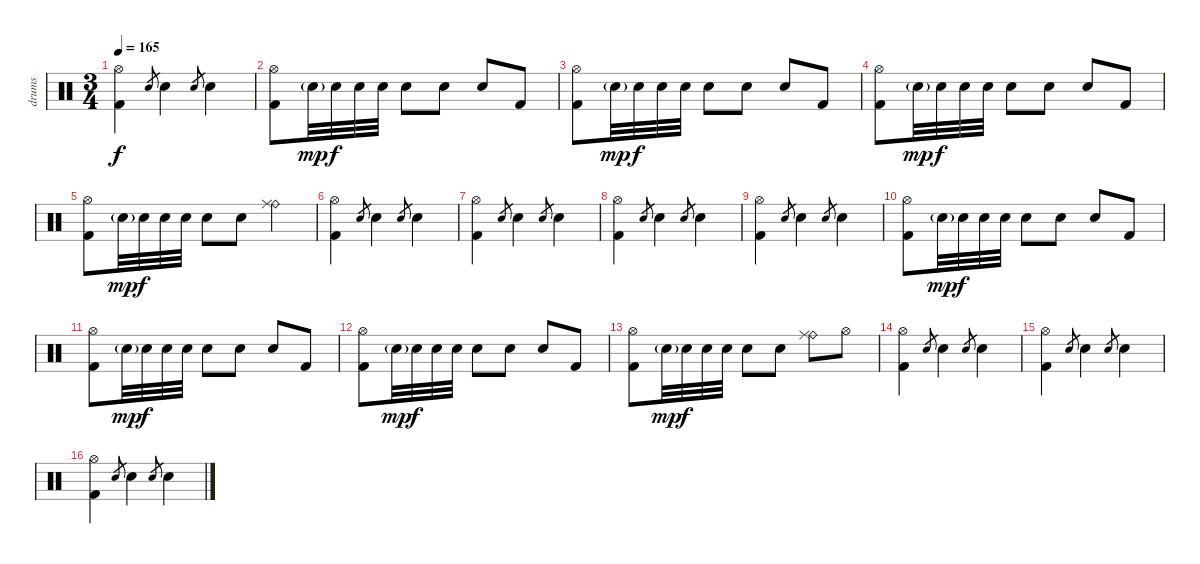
\track ("drums" "drums") {instrument percussion}
\staff {score}
\articulation defaults
\ts (3 4)
\tempo 165
\clef neutral
\ks c
("Hi-Hat (open)" "Kick (hit) 2").4{dy f} "Snare (hit) 2".8{gr} "Snare (hit) 2".4 "Snare (hit) 2".8{gr} "Snare (hit) 2".4 |
("Hi-Hat (open)" "Kick (hit) 2").8 "Snare (hit) 2"{g}.32{dy mp} "Snare (hit) 2".32{dy f} "Snare (hit) 2".32 "Snare (hit) 2".32 "Snare (hit) 2".8 "Snare (hit) 2".8 "Snare (hit) 2".8 "Kick (hit) 2".8 |
("Hi-Hat (open)" "Kick (hit) 2").8 "Snare (hit) 2"{g}.32{dy mp} "Snare (hit) 2".32{dy f} "Snare (hit) 2".32 "Snare (hit) 2".32 "Snare (hit) 2".8 "Snare (hit) 2".8 "Snare (hit) 2".8 "Kick (hit) 2".8 |
("Hi-Hat (open)" "Kick (hit) 2").8 "Snare (hit) 2"{g}.32{dy mp} "Snare (hit) 2".32{dy f} "Snare (hit) 2".32 "Snare (hit) 2".32 "Snare (hit) 2".8 "Snare (hit) 2".8 "Snare (hit) 2".8 "Kick (hit) 2".8 |
("Hi-Hat (open)" "Kick (hit) 2").8 "Snare (hit) 2"{g}.32{dy mp} "Snare (hit) 2".32{dy f} "Snare (hit) 2".32 "Snare (hit) 2".32 "Snare (hit) 2".8 "Snare (hit) 2".8 ("Ride (bell)" "Ride (middle)").4 |
("Hi-Hat (open)" "Kick (hit) 2").4 "Snare (hit) 2".8{gr} "Snare (hit) 2".4 "Snare (hit) 2".8{gr} "Snare (hit) 2".4 |
("Hi-Hat (open)" "Kick (hit) 2").4 "Snare (hit) 2".8{gr} "Snare (hit) 2".4 "Snare (hit) 2".8{gr} "Snare (hit) 2".4 |
("Hi-Hat (open)" "Kick (hit) 2").4 "Snare (hit) 2".8{gr} "Snare (hit) 2".4 "Snare (hit) 2".8{gr} "Snare (hit) 2".4 |
("Hi-Hat (open)" "Kick (hit) 2").4 "Snare (hit) 2".8{gr} "Snare (hit) 2".4 "Snare (hit) 2".8{gr} "Snare (hit) 2".4 |
("Hi-Hat (open)" "Kick (hit) 2").8 "Snare (hit) 2"{g}.32{dy mp} "Snare (hit) 2".32{dy f} "Snare (hit) 2".32 "Snare (hit) 2".32 "Snare (hit) 2".8 "Snare (hit) 2".8 "Snare (hit) 2".8 "Kick (hit) 2".8 |
("Hi-Hat (open)" "Kick (hit) 2").8 "Snare (hit) 2"{g}.32{dy mp} "Snare (hit) 2".32{dy f} "Snare (hit) 2".32 "Snare (hit) 2".32 "Snare (hit) 2".8 "Snare (hit) 2".8 "Snare (hit) 2".8 "Kick (hit) 2".8 |
("Hi-Hat (open)" "Kick (hit) 2").8 "Snare (hit) 2"{g}.32{dy mp} "Snare (hit) 2".32{dy f} "Snare (hit) 2".32 "Snare (hit) 2".32 "Snare (hit) 2".8 "Snare (hit) 2".8 "Snare (hit) 2".8 "Kick (hit) 2".8 |
("Hi-Hat (open)" "Kick (hit) 2").8 "Snare (hit) 2"{g}.32{dy mp} "Snare (hit) 2".32{dy f} "Snare (hit) 2".32 "Snare (hit) 2".32 "Snare (hit) 2".8 "Snare (hit) 2".8 ("Ride (bell)" "Ride (middle)").8 "Hi-Hat (open)".8 |
("Hi-Hat (open)" "Kick (hit) 2").4 "Snare (hit) 2".8{gr} "Snare (hit) 2".4 "Snare (hit) 2".8{gr} "Snare (hit) 2".4 |
("Hi-Hat (open)" "Kick (hit) 2").4 "Snare (hit) 2".8{gr} "Snare (hit) 2".4 "Snare (hit) 2".8{gr} "Snare (hit) 2".4 |
("Hi-Hat (open)" "Kick (hit) 2").4 "Snare (hit) 2".8{gr} "Snare (hit) 2".4 "Snare (hit) 2".8{gr} "Snare (hit) 2".4
